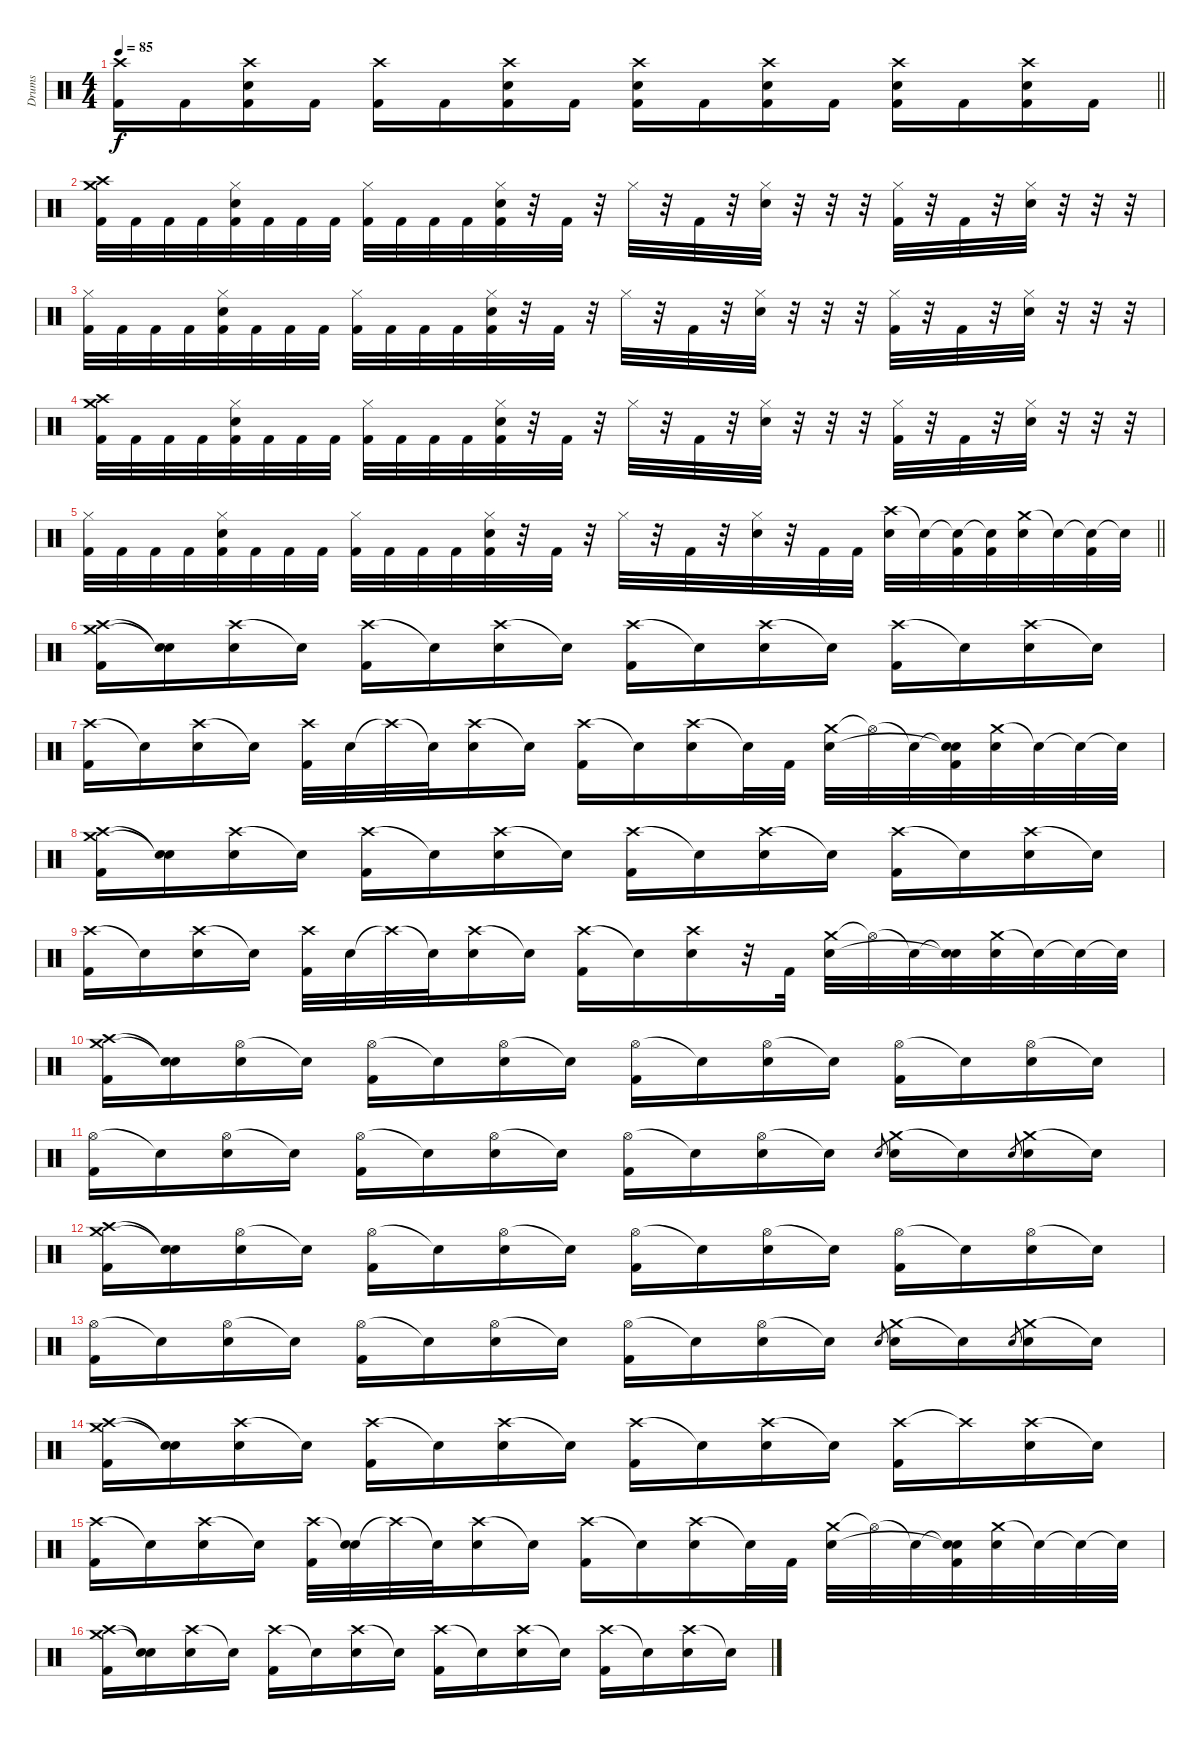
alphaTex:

\track ("Drums" "Drums") {instrument percussion}
\staff {score}
\articulation defaults
\ts (4 4)
\tempo 85
\clef neutral
\barLineRight lightlight
\ks c
("Crash high (hit)" "Kick (hit) 2").16{dy f} "Kick (hit) 2".16 ("Crash high (hit)" "Electric Snare (hit)" "Kick (hit) 2").16 "Kick (hit) 2".16 ("Crash high (hit)" "Kick (hit) 2").16 "Kick (hit) 2".16 ("Crash high (hit)" "Electric Snare (hit)" "Kick (hit) 2").16 "Kick (hit) 2".16 ("Crash high (hit)" "Electric Snare (hit)" "Kick (hit) 2").16 "Kick (hit) 2".16 ("Crash high (hit)" "Electric Snare (hit)" "Kick (hit) 2").16 "Kick (hit) 2".16 ("Crash high (hit)" "Electric Snare (hit)" "Kick (hit) 2").16 "Kick (hit) 2".16 ("Crash high (hit)" "Electric Snare (hit)" "Kick (hit) 2").16 "Kick (hit) 2".16 |
("Crash medium (hit)" "Crash high (hit)" "Kick (hit) 2").32 "Kick (hit) 2".32 "Kick (hit) 2".32 "Kick (hit) 2".32 ("Hi-Hat (closed)" "Electric Snare (hit)" "Kick (hit) 2").32 "Kick (hit) 2".32 "Kick (hit) 2".32 "Kick (hit) 2".32 ("Hi-Hat (closed)" "Kick (hit) 2").32 "Kick (hit) 2".32 "Kick (hit) 2".32 "Kick (hit) 2".32 ("Hi-Hat (closed)" "Electric Snare (hit)" "Kick (hit) 2").32 r.32 "Kick (hit) 2".32 r.32 "Hi-Hat (closed)".32 r.32 "Kick (hit) 2".32 r.32 ("Hi-Hat (closed)" "Electric Snare (hit)").32 r.32 r.32 r.32 ("Hi-Hat (closed)" "Kick (hit) 2").32 r.32 "Kick (hit) 2".32 r.32 ("Hi-Hat (closed)" "Electric Snare (hit)").32 r.32 r.32 r.32 |
("Hi-Hat (closed)" "Kick (hit) 2").32 "Kick (hit) 2".32 "Kick (hit) 2".32 "Kick (hit) 2".32 ("Hi-Hat (closed)" "Electric Snare (hit)" "Kick (hit) 2").32 "Kick (hit) 2".32 "Kick (hit) 2".32 "Kick (hit) 2".32 ("Hi-Hat (closed)" "Kick (hit) 2").32 "Kick (hit) 2".32 "Kick (hit) 2".32 "Kick (hit) 2".32 ("Hi-Hat (closed)" "Electric Snare (hit)" "Kick (hit) 2").32 r.32 "Kick (hit) 2".32 r.32 "Hi-Hat (closed)".32 r.32 "Kick (hit) 2".32 r.32 ("Hi-Hat (closed)" "Electric Snare (hit)").32 r.32 r.32 r.32 ("Hi-Hat (closed)" "Kick (hit) 2").32 r.32 "Kick (hit) 2".32 r.32 ("Hi-Hat (closed)" "Electric Snare (hit)").32 r.32 r.32 r.32 |
("Crash medium (hit)" "Crash high (hit)" "Kick (hit) 2").32 "Kick (hit) 2".32 "Kick (hit) 2".32 "Kick (hit) 2".32 ("Hi-Hat (closed)" "Electric Snare (hit)" "Kick (hit) 2").32 "Kick (hit) 2".32 "Kick (hit) 2".32 "Kick (hit) 2".32 ("Hi-Hat (closed)" "Kick (hit) 2").32 "Kick (hit) 2".32 "Kick (hit) 2".32 "Kick (hit) 2".32 ("Hi-Hat (closed)" "Electric Snare (hit)" "Kick (hit) 2").32 r.32 "Kick (hit) 2".32 r.32 "Hi-Hat (closed)".32 r.32 "Kick (hit) 2".32 r.32 ("Hi-Hat (closed)" "Electric Snare (hit)").32 r.32 r.32 r.32 ("Hi-Hat (closed)" "Kick (hit) 2").32 r.32 "Kick (hit) 2".32 r.32 ("Hi-Hat (closed)" "Electric Snare (hit)").32 r.32 r.32 r.32 |
\barLineRight lightlight
("Hi-Hat (closed)" "Kick (hit) 2").32 "Kick (hit) 2".32 "Kick (hit) 2".32 "Kick (hit) 2".32 ("Hi-Hat (closed)" "Electric Snare (hit)" "Kick (hit) 2").32 "Kick (hit) 2".32 "Kick (hit) 2".32 "Kick (hit) 2".32 ("Hi-Hat (closed)" "Kick (hit) 2").32 "Kick (hit) 2".32 "Kick (hit) 2".32 "Kick (hit) 2".32 ("Hi-Hat (closed)" "Electric Snare (hit)" "Kick (hit) 2").32 r.32 "Kick (hit) 2".32 r.32 "Hi-Hat (closed)".32 r.32 "Kick (hit) 2".32 r.32 ("Hi-Hat (closed)" "Electric Snare (hit)").32 r.32 "Kick (hit) 2".32 "Kick (hit) 2".32 ("Crash high (hit)" "Electric Snare (hit)").32 "Snare (hit)"{t}.32 ("Snare (hit)"{t} "Kick (hit) 2").32 ("Snare (hit)"{t} "Kick (hit) 2").32 ("Crash medium (hit)" "Electric Snare (hit)").32 "Snare (hit)"{t}.32 ("Snare (hit)"{t} "Kick (hit) 2").32 "Snare (hit)"{t}.32 |
("Crash medium (hit)" "Crash high (hit)" "Kick (hit) 2").16 ("Snare (hit)"{t} "Snare (hit)"{t}).16 ("Crash high (hit)" "Electric Snare (hit)").16 "Snare (hit)"{t}.16 ("Crash high (hit)" "Kick (hit) 2").16 "Snare (hit)"{t}.16 ("Crash high (hit)" "Electric Snare (hit)").16 "Snare (hit)"{t}.16 ("Crash high (hit)" "Kick (hit) 2").16 "Snare (hit)"{t}.16 ("Crash high (hit)" "Electric Snare (hit)").16 "Snare (hit)"{t}.16 ("Crash high (hit)" "Kick (hit) 2").16 "Snare (hit)"{t}.16 ("Crash high (hit)" "Electric Snare (hit)").16 "Snare (hit)"{t}.16 |
("Crash high (hit)" "Kick (hit) 2").16 "Snare (hit)"{t}.16 ("Crash high (hit)" "Electric Snare (hit)").16 "Snare (hit)"{t}.16 ("Crash high (hit)" "Kick (hit) 2").32 "Electric Snare (hit)".32 "Crash high (hit)"{t}.32 "Snare (hit)"{t}.32 ("Crash high (hit)" "Electric Snare (hit)").16 "Snare (hit)"{t}.16 ("Crash high (hit)" "Kick (hit) 2").16 "Snare (hit)"{t}.16 ("Crash high (hit)" "Electric Snare (hit)").16 "Snare (hit)"{t}.32 "Kick (hit) 2".32 ("Crash medium (hit)" "Electric Snare (hit)").32 "Hi-Hat (open)"{t}.32 "Snare (hit)"{t}.32 ("Snare (hit)"{t} "Snare (hit)"{t} "Kick (hit) 2").32 ("Crash medium (hit)" "Electric Snare (hit)").32 "Snare (hit)"{t}.32 "Snare (hit)"{t}.32 "Snare (hit)"{t}.32 |
("Crash medium (hit)" "Crash high (hit)" "Kick (hit) 2").16 ("Snare (hit)"{t} "Snare (hit)"{t}).16 ("Crash high (hit)" "Electric Snare (hit)").16 "Snare (hit)"{t}.16 ("Crash high (hit)" "Kick (hit) 2").16 "Snare (hit)"{t}.16 ("Crash high (hit)" "Electric Snare (hit)").16 "Snare (hit)"{t}.16 ("Crash high (hit)" "Kick (hit) 2").16 "Snare (hit)"{t}.16 ("Crash high (hit)" "Electric Snare (hit)").16 "Snare (hit)"{t}.16 ("Crash high (hit)" "Kick (hit) 2").16 "Snare (hit)"{t}.16 ("Crash high (hit)" "Electric Snare (hit)").16 "Snare (hit)"{t}.16 |
("Crash high (hit)" "Kick (hit) 2").16 "Snare (hit)"{t}.16 ("Crash high (hit)" "Electric Snare (hit)").16 "Snare (hit)"{t}.16 ("Crash high (hit)" "Kick (hit) 2").32 "Electric Snare (hit)".32 "Crash high (hit)"{t}.32 "Snare (hit)"{t}.32 ("Crash high (hit)" "Electric Snare (hit)").16 "Snare (hit)"{t}.16 ("Crash high (hit)" "Kick (hit) 2").16 "Snare (hit)"{t}.16 ("Crash high (hit)" "Electric Snare (hit)").16 r.32 "Kick (hit) 2".32 ("Crash medium (hit)" "Electric Snare (hit)").32 "Hi-Hat (open)"{t}.32 "Snare (hit)"{t}.32 ("Snare (hit)"{t} "Snare (hit)"{t}).32 ("Crash medium (hit)" "Electric Snare (hit)").32 "Snare (hit)"{t}.32 "Snare (hit)"{t}.32 "Snare (hit)"{t}.32 |
("Crash medium (hit)" "Crash high (hit)" "Kick (hit) 2").16 ("Snare (hit)"{t} "Snare (hit)"{t}).16 ("Hi-Hat (open)" "Electric Snare (hit)").16 "Snare (hit)"{t}.16 ("Hi-Hat (open)" "Kick (hit) 2").16 "Snare (hit)"{t}.16 ("Hi-Hat (open)" "Electric Snare (hit)").16 "Snare (hit)"{t}.16 ("Hi-Hat (open)" "Kick (hit) 2").16 "Snare (hit)"{t}.16 ("Hi-Hat (open)" "Electric Snare (hit)").16 "Snare (hit)"{t}.16 ("Hi-Hat (open)" "Kick (hit) 2").16 "Snare (hit)"{t}.16 ("Hi-Hat (open)" "Electric Snare (hit)").16 "Snare (hit)"{t}.16 |
("Hi-Hat (open)" "Kick (hit) 2").16 "Snare (hit)"{t}.16 ("Hi-Hat (open)" "Electric Snare (hit)").16 "Snare (hit)"{t}.16 ("Hi-Hat (open)" "Kick (hit) 2").16 "Snare (hit)"{t}.16 ("Hi-Hat (open)" "Electric Snare (hit)").16 "Snare (hit)"{t}.16 ("Hi-Hat (open)" "Kick (hit) 2").16 "Snare (hit)"{t}.16 ("Hi-Hat (open)" "Electric Snare (hit)").16 "Snare (hit)"{t}.16 "Electric Snare (hit)".8{gr} ("Crash medium (hit)" "Electric Snare (hit)").16 "Snare (hit)"{t}.16 "Electric Snare (hit)".8{gr} ("Crash medium (hit)" "Electric Snare (hit)").16 "Snare (hit)"{t}.16 |
("Crash medium (hit)" "Crash high (hit)" "Kick (hit) 2").16 ("Snare (hit)"{t} "Snare (hit)"{t}).16 ("Hi-Hat (open)" "Electric Snare (hit)").16 "Snare (hit)"{t}.16 ("Hi-Hat (open)" "Kick (hit) 2").16 "Snare (hit)"{t}.16 ("Hi-Hat (open)" "Electric Snare (hit)").16 "Snare (hit)"{t}.16 ("Hi-Hat (open)" "Kick (hit) 2").16 "Snare (hit)"{t}.16 ("Hi-Hat (open)" "Electric Snare (hit)").16 "Snare (hit)"{t}.16 ("Hi-Hat (open)" "Kick (hit) 2").16 "Snare (hit)"{t}.16 ("Hi-Hat (open)" "Electric Snare (hit)").16 "Snare (hit)"{t}.16 |
("Hi-Hat (open)" "Kick (hit) 2").16 "Snare (hit)"{t}.16 ("Hi-Hat (open)" "Electric Snare (hit)").16 "Snare (hit)"{t}.16 ("Hi-Hat (open)" "Kick (hit) 2").16 "Snare (hit)"{t}.16 ("Hi-Hat (open)" "Electric Snare (hit)").16 "Snare (hit)"{t}.16 ("Hi-Hat (open)" "Kick (hit) 2").16 "Snare (hit)"{t}.16 ("Hi-Hat (open)" "Electric Snare (hit)").16 "Snare (hit)"{t}.16 "Electric Snare (hit)".8{gr} ("Crash medium (hit)" "Electric Snare (hit)").16 "Snare (hit)"{t}.16 "Electric Snare (hit)".8{gr} ("Crash medium (hit)" "Electric Snare (hit)").16 "Snare (hit)"{t}.16 |
("Crash medium (hit)" "Crash high (hit)" "Kick (hit) 2").16 ("Snare (hit)"{t} "Snare (hit)"{t}).16 ("Crash high (hit)" "Electric Snare (hit)").16 "Snare (hit)"{t}.16 ("Crash high (hit)" "Kick (hit) 2").16 "Snare (hit)"{t}.16 ("Crash high (hit)" "Electric Snare (hit)").16 "Snare (hit)"{t}.16 ("Crash high (hit)" "Kick (hit) 2").16 "Snare (hit)"{t}.16 ("Crash high (hit)" "Electric Snare (hit)").16 "Snare (hit)"{t}.16 ("Crash high (hit)" "Kick (hit) 2").16 "Crash high (hit)"{t}.16 ("Crash high (hit)" "Electric Snare (hit)").16 "Snare (hit)"{t}.16 |
("Crash high (hit)" "Kick (hit) 2").16 "Snare (hit)"{t}.16 ("Crash high (hit)" "Electric Snare (hit)").16 "Snare (hit)"{t}.16 ("Crash high (hit)" "Kick (hit) 2").32 ("Snare (hit)"{t} "Electric Snare (hit)").32 "Crash high (hit)"{t}.32 "Snare (hit)"{t}.32 ("Crash high (hit)" "Electric Snare (hit)").16 "Snare (hit)"{t}.16 ("Crash high (hit)" "Kick (hit) 2").16 "Snare (hit)"{t}.16 ("Crash high (hit)" "Electric Snare (hit)").16 "Snare (hit)"{t}.32 "Kick (hit) 2".32 ("Crash medium (hit)" "Electric Snare (hit)").32 "Hi-Hat (open)"{t}.32 "Snare (hit)"{t}.32 ("Snare (hit)"{t} "Snare (hit)"{t} "Kick (hit) 2").32 ("Crash medium (hit)" "Electric Snare (hit)").32 "Snare (hit)"{t}.32 "Snare (hit)"{t}.32 "Snare (hit)"{t}.32 |
("Crash medium (hit)" "Crash high (hit)" "Kick (hit) 2").16 ("Snare (hit)"{t} "Snare (hit)"{t}).16 ("Crash high (hit)" "Electric Snare (hit)").16 "Snare (hit)"{t}.16 ("Crash high (hit)" "Kick (hit) 2").16 "Snare (hit)"{t}.16 ("Crash high (hit)" "Electric Snare (hit)").16 "Snare (hit)"{t}.16 ("Crash high (hit)" "Kick (hit) 2").16 "Snare (hit)"{t}.16 ("Crash high (hit)" "Electric Snare (hit)").16 "Snare (hit)"{t}.16 ("Crash high (hit)" "Kick (hit) 2").16 "Snare (hit)"{t}.16 ("Crash high (hit)" "Electric Snare (hit)").16 "Snare (hit)"{t}.16
